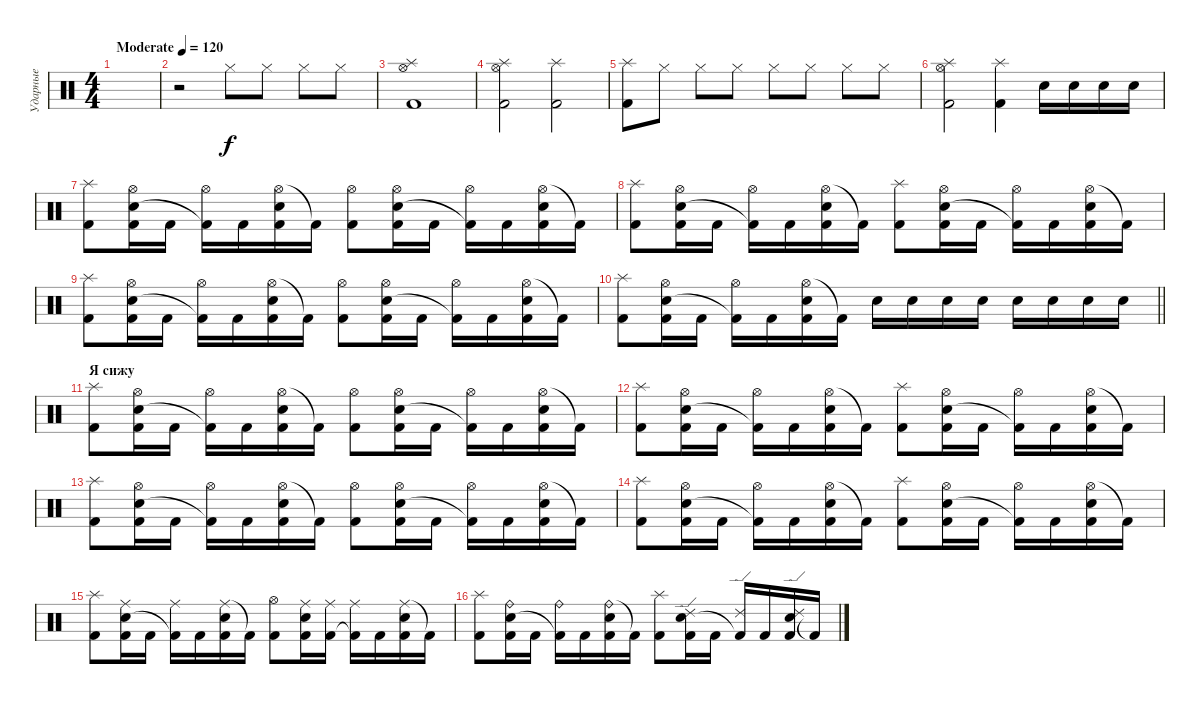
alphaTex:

\track ("Ударные" "Ударные") {instrument percussion}
\staff {score}
\articulation defaults
\ts (4 4)
\tempo (120 "Moderate")
\clef neutral
\ks c
|
r.2 "Hi-Hat (closed)".8 "Hi-Hat (closed)".8 "Hi-Hat (closed)".8 "Hi-Hat (closed)".8 |
("Hi-Hat (open)" "Splash (hit)" "Kick (hit) 2").1 |
("Splash (hit)" "Hi-Hat (open)" "Kick (hit) 2").2 ("Splash (hit)" "Kick (hit) 2").2 |
("Splash (hit)" "Kick (hit) 2").8 "Hi-Hat (closed)".8 "Hi-Hat (closed)".8 "Hi-Hat (closed)".8 "Hi-Hat (closed)".8 "Hi-Hat (closed)".8 "Hi-Hat (closed)".8 "Hi-Hat (closed)".8 |
("Splash (hit)" "Hi-Hat (open)" "Kick (hit) 2").2 ("Splash (hit)" "Kick (hit) 2").4 "Electric Snare (hit)".16 "Electric Snare (hit)".16 "Electric Snare (hit)".16 "Electric Snare (hit)".16 |
("Splash (hit)" "Kick (hit) 2").8 ("Hi-Hat (open)" "Electric Snare (hit)" "Kick (hit) 2").16 "Kick (hit) 2".16 ("Hi-Hat (open)" "Kick (hit) 2"{t}).16 "Kick (hit) 2".16 ("Hi-Hat (open)" "Electric Snare (hit)" "Kick (hit) 2").16 "Kick (hit) 2"{t}.16 ("Hi-Hat (open)" "Kick (hit) 2").8 ("Hi-Hat (open)" "Electric Snare (hit)" "Kick (hit) 2").16 "Kick (hit) 2".16 ("Hi-Hat (open)" "Kick (hit) 2"{t}).16 "Kick (hit) 2".16 ("Hi-Hat (open)" "Electric Snare (hit)" "Kick (hit) 2").16 "Kick (hit) 2"{t}.16 |
("Splash (hit)" "Kick (hit) 2").8 ("Hi-Hat (open)" "Electric Snare (hit)" "Kick (hit) 2").16 "Kick (hit) 2".16 ("Hi-Hat (open)" "Kick (hit) 2"{t}).16 "Kick (hit) 2".16 ("Hi-Hat (open)" "Electric Snare (hit)" "Kick (hit) 2").16 "Kick (hit) 2"{t}.16 ("Splash (hit)" "Kick (hit) 2").8 ("Hi-Hat (open)" "Electric Snare (hit)" "Kick (hit) 2").16 "Kick (hit) 2".16 ("Hi-Hat (open)" "Kick (hit) 2"{t}).16 "Kick (hit) 2".16 ("Hi-Hat (open)" "Electric Snare (hit)" "Kick (hit) 2").16 "Kick (hit) 2"{t}.16 |
("Splash (hit)" "Kick (hit) 2").8 ("Hi-Hat (open)" "Electric Snare (hit)" "Kick (hit) 2").16 "Kick (hit) 2".16 ("Hi-Hat (open)" "Kick (hit) 2"{t}).16 "Kick (hit) 2".16 ("Hi-Hat (open)" "Electric Snare (hit)" "Kick (hit) 2").16 "Kick (hit) 2"{t}.16 ("Hi-Hat (open)" "Kick (hit) 2").8 ("Hi-Hat (open)" "Electric Snare (hit)" "Kick (hit) 2").16 "Kick (hit) 2".16 ("Hi-Hat (open)" "Kick (hit) 2"{t}).16 "Kick (hit) 2".16 ("Hi-Hat (open)" "Electric Snare (hit)" "Kick (hit) 2").16 "Kick (hit) 2"{t}.16 |
\barLineRight lightlight
("Splash (hit)" "Kick (hit) 2").8 ("Hi-Hat (open)" "Electric Snare (hit)" "Kick (hit) 2").16 "Kick (hit) 2".16 ("Hi-Hat (open)" "Kick (hit) 2"{t}).16 "Kick (hit) 2".16 ("Hi-Hat (open)" "Electric Snare (hit)" "Kick (hit) 2").16 "Kick (hit) 2"{t}.16 "Electric Snare (hit)".16 "Electric Snare (hit)".16 "Electric Snare (hit)".16 "Electric Snare (hit)".16 "Electric Snare (hit)".16 "Electric Snare (hit)".16 "Electric Snare (hit)".16 "Electric Snare (hit)".16 |
\section ("" "Я сижу")
("Splash (hit)" "Kick (hit) 2").8 ("Hi-Hat (open)" "Electric Snare (hit)" "Kick (hit) 2").16 "Kick (hit) 2".16 ("Hi-Hat (open)" "Kick (hit) 2"{t}).16 "Kick (hit) 2".16 ("Hi-Hat (open)" "Electric Snare (hit)" "Kick (hit) 2").16 "Kick (hit) 2"{t}.16 ("Hi-Hat (open)" "Kick (hit) 2").8 ("Hi-Hat (open)" "Electric Snare (hit)" "Kick (hit) 2").16 "Kick (hit) 2".16 ("Hi-Hat (open)" "Kick (hit) 2"{t}).16 "Kick (hit) 2".16 ("Hi-Hat (open)" "Electric Snare (hit)" "Kick (hit) 2").16 "Kick (hit) 2"{t}.16 |
("Splash (hit)" "Kick (hit) 2").8 ("Hi-Hat (open)" "Electric Snare (hit)" "Kick (hit) 2").16 "Kick (hit) 2".16 ("Hi-Hat (open)" "Kick (hit) 2"{t}).16 "Kick (hit) 2".16 ("Hi-Hat (open)" "Electric Snare (hit)" "Kick (hit) 2").16 "Kick (hit) 2"{t}.16 ("Splash (hit)" "Kick (hit) 2").8 ("Hi-Hat (open)" "Electric Snare (hit)" "Kick (hit) 2").16 "Kick (hit) 2".16 ("Hi-Hat (open)" "Kick (hit) 2"{t}).16 "Kick (hit) 2".16 ("Hi-Hat (open)" "Electric Snare (hit)" "Kick (hit) 2").16 "Kick (hit) 2"{t}.16 |
("Splash (hit)" "Kick (hit) 2").8 ("Hi-Hat (open)" "Electric Snare (hit)" "Kick (hit) 2").16 "Kick (hit) 2".16 ("Hi-Hat (open)" "Kick (hit) 2"{t}).16 "Kick (hit) 2".16 ("Hi-Hat (open)" "Electric Snare (hit)" "Kick (hit) 2").16 "Kick (hit) 2"{t}.16 ("Hi-Hat (open)" "Kick (hit) 2").8 ("Hi-Hat (open)" "Electric Snare (hit)" "Kick (hit) 2").16 "Kick (hit) 2".16 ("Hi-Hat (open)" "Kick (hit) 2"{t}).16 "Kick (hit) 2".16 ("Hi-Hat (open)" "Electric Snare (hit)" "Kick (hit) 2").16 "Kick (hit) 2"{t}.16 |
("Splash (hit)" "Kick (hit) 2").8 ("Hi-Hat (open)" "Electric Snare (hit)" "Kick (hit) 2").16 "Kick (hit) 2".16 ("Hi-Hat (open)" "Kick (hit) 2"{t}).16 "Kick (hit) 2".16 ("Hi-Hat (open)" "Electric Snare (hit)" "Kick (hit) 2").16 "Kick (hit) 2"{t}.16 ("Splash (hit)" "Kick (hit) 2").8 ("Hi-Hat (open)" "Electric Snare (hit)" "Kick (hit) 2").16 "Kick (hit) 2".16 ("Hi-Hat (open)" "Kick (hit) 2"{t}).16 "Kick (hit) 2".16 ("Hi-Hat (open)" "Electric Snare (hit)" "Kick (hit) 2").16 "Kick (hit) 2"{t}.16 |
("Splash (hit)" "Kick (hit) 2").8 ("Ride (middle)" "Electric Snare (hit)" "Kick (hit) 2").16 "Kick (hit) 2".16 ("Ride (middle)" "Kick (hit) 2"{t}).16 "Kick (hit) 2".16 ("Ride (middle)" "Electric Snare (hit)" "Kick (hit) 2").16 "Kick (hit) 2"{t}.16 ("Hi-Hat (open)" "Kick (hit) 2").8 ("Ride (middle)" "Electric Snare (hit)" "Kick (hit) 2").16 ("Ride (middle)" "Kick (hit) 2").16 ("Ride (middle)" "Kick (hit) 2"{t}).16 "Kick (hit) 2".16 ("Ride (middle)" "Electric Snare (hit)" "Kick (hit) 2").16 "Kick (hit) 2"{t}.16 |
("Splash (hit)" "Kick (hit) 2").8 ("Ride (bell)" "Electric Snare (hit)" "Kick (hit) 2").16 "Kick (hit) 2".16 ("Ride (bell)" "Kick (hit) 2"{t}).16 "Kick (hit) 2".16 ("Ride (bell)" "Electric Snare (hit)" "Kick (hit) 2").16 "Kick (hit) 2"{t}.16 ("Splash (hit)" "Kick (hit) 2").8 ("Ride (edge) 2" "Electric Snare (hit)" "Kick (hit) 2").16 "Kick (hit) 2".16 ("Ride (edge) 2" "Kick (hit) 2"{t}).16 "Kick (hit) 2".16 ("Ride (edge) 2" "Electric Snare (hit)" "Kick (hit) 2").16 "Kick (hit) 2"{t}.16
